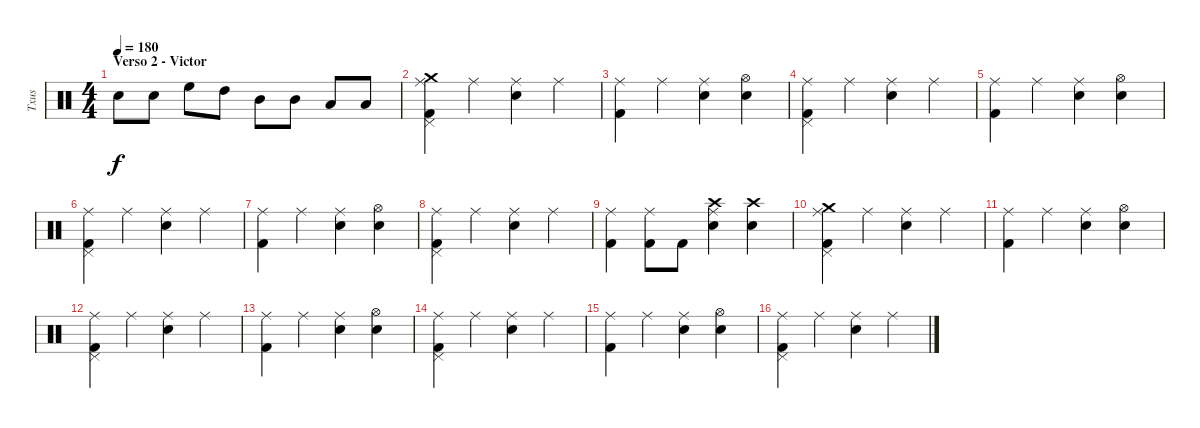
\track ("Txus" "Txus") {instrument percussion}
\staff {score}
\articulation defaults
\ts (4 4)
\section ("" "Verso 2 - Victor")
\tempo 180
\clef neutral
\ks c "Electric Snare (hit)".8{dy f} "Electric Snare (hit)".8 "High Floor Tom (hit)".8 "High Tom (hit)".8 "Mid Tom (hit)".8 "Mid Tom (hit)".8 "Low Tom (hit)".8 "Low Tom (hit)".8
|
("Crash medium (hit)" "Ride (middle)" "Pedal Hi-Hat (hit)" "Kick (hit) 2").4 "Ride (middle)".4 ("Ride (middle)" "Electric Snare (hit)").4 "Ride (middle)".4 |
("Ride (middle)" "Kick (hit) 2").4 "Ride (middle)".4 ("Ride (middle)" "Electric Snare (hit)").4 ("Hi-Hat (open)" "Electric Snare (hit)").4 |
("Ride (middle)" "Pedal Hi-Hat (hit)" "Kick (hit) 2").4 "Ride (middle)".4 ("Ride (middle)" "Electric Snare (hit)").4 "Ride (middle)".4 |
("Ride (middle)" "Kick (hit) 2").4 "Ride (middle)".4 ("Ride (middle)" "Electric Snare (hit)").4 ("Hi-Hat (open)" "Electric Snare (hit)").4 |
("Ride (middle)" "Pedal Hi-Hat (hit)" "Kick (hit) 2").4 "Ride (middle)".4 ("Ride (middle)" "Electric Snare (hit)").4 "Ride (middle)".4 |
("Ride (middle)" "Kick (hit) 2").4 "Ride (middle)".4 ("Ride (middle)" "Electric Snare (hit)").4 ("Hi-Hat (open)" "Electric Snare (hit)").4 |
("Ride (middle)" "Pedal Hi-Hat (hit)" "Kick (hit) 2").4 "Ride (middle)".4 ("Ride (middle)" "Electric Snare (hit)").4 "Ride (middle)".4 |
("Ride (middle)" "Kick (hit) 2").4 ("Ride (middle)" "Kick (hit) 2").8 "Kick (hit) 2".8 ("Crash high (hit)" "Ride (middle)" "Electric Snare (hit)").4 ("Crash high (hit)" "Electric Snare (hit)").4 |
("Crash medium (hit)" "Ride (middle)" "Pedal Hi-Hat (hit)" "Kick (hit) 2").4 "Ride (middle)".4 ("Ride (middle)" "Electric Snare (hit)").4 "Ride (middle)".4 |
("Ride (middle)" "Kick (hit) 2").4 "Ride (middle)".4 ("Ride (middle)" "Electric Snare (hit)").4 ("Hi-Hat (open)" "Electric Snare (hit)").4 |
("Ride (middle)" "Pedal Hi-Hat (hit)" "Kick (hit) 2").4 "Ride (middle)".4 ("Ride (middle)" "Electric Snare (hit)").4 "Ride (middle)".4 |
("Ride (middle)" "Kick (hit) 2").4 "Ride (middle)".4 ("Ride (middle)" "Electric Snare (hit)").4 ("Hi-Hat (open)" "Electric Snare (hit)").4 |
("Ride (middle)" "Pedal Hi-Hat (hit)" "Kick (hit) 2").4 "Ride (middle)".4 ("Ride (middle)" "Electric Snare (hit)").4 "Ride (middle)".4 |
("Ride (middle)" "Kick (hit) 2").4 "Ride (middle)".4 ("Ride (middle)" "Electric Snare (hit)").4 ("Hi-Hat (open)" "Electric Snare (hit)").4 |
("Ride (middle)" "Pedal Hi-Hat (hit)" "Kick (hit) 2").4 "Ride (middle)".4 ("Ride (middle)" "Electric Snare (hit)").4 "Ride (middle)".4
